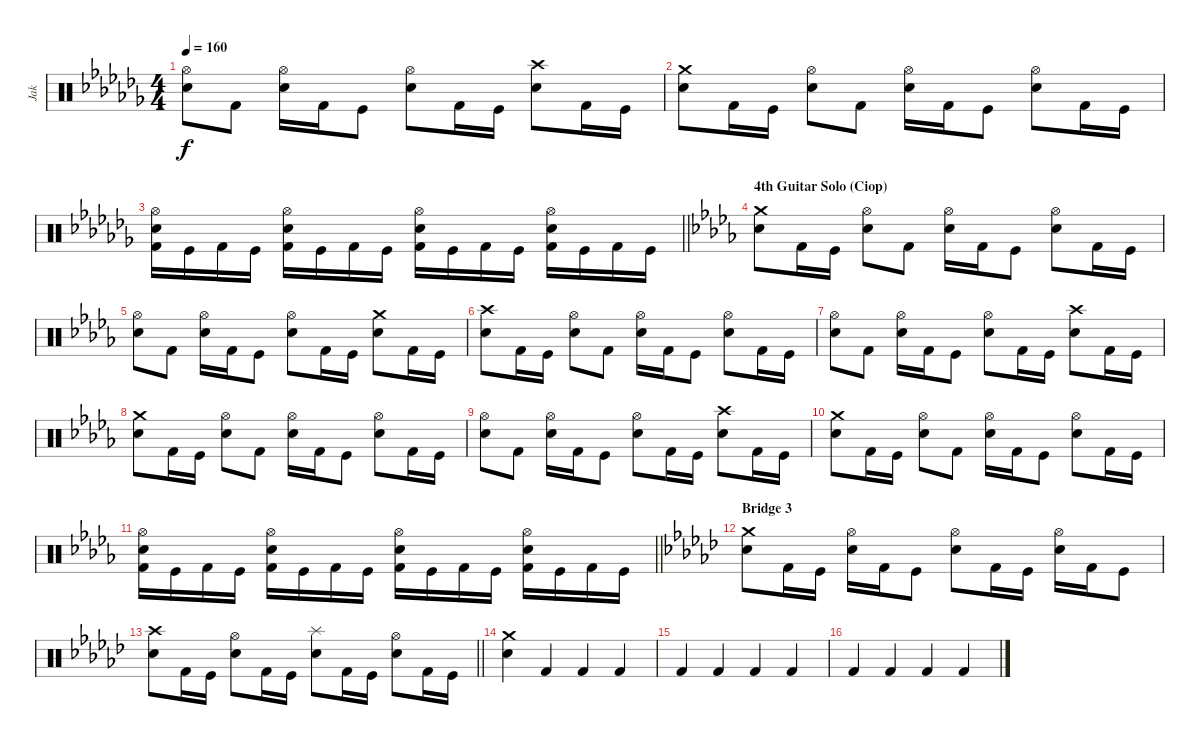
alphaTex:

\track ("Jak" "Jak") {instrument percussion}
\staff {score}
\articulation defaults
\ts (4 4)
\tempo 160
\clef neutral
\ks abminor
("Hi-Hat (open)" "Snare (hit) 2").8{dy f} "Kick (hit) 2".8 ("Hi-Hat (open)" "Snare (hit) 2").16 "Kick (hit) 2".16 "Kick (hit)".8 ("Hi-Hat (open)" "Snare (hit) 2").8 "Kick (hit) 2".16 "Kick (hit)".16 ("Crash high (hit)" "Snare (hit) 2").8 "Kick (hit) 2".16 "Kick (hit)".16 |
("Crash medium (hit)" "Snare (hit) 2").8 "Kick (hit) 2".16 "Kick (hit)".16 ("Hi-Hat (open)" "Snare (hit) 2").8 "Kick (hit) 2".8 ("Hi-Hat (open)" "Snare (hit) 2").16 "Kick (hit) 2".16 "Kick (hit)".8 ("Hi-Hat (open)" "Snare (hit) 2").8 "Kick (hit) 2".16 "Kick (hit)".16 |
\barLineRight lightlight
("Hi-Hat (open)" "Snare (hit) 2" "Kick (hit) 2").16 "Kick (hit)".16 "Kick (hit) 2".16 "Kick (hit)".16 ("Hi-Hat (open)" "Snare (hit) 2" "Kick (hit) 2").16 "Kick (hit)".16 "Kick (hit) 2".16 "Kick (hit)".16 ("Hi-Hat (open)" "Snare (hit) 2" "Kick (hit) 2").16 "Kick (hit)".16 "Kick (hit) 2".16 "Kick (hit)".16 ("Hi-Hat (open)" "Snare (hit) 2" "Kick (hit) 2").16 "Kick (hit)".16 "Kick (hit) 2".16 "Kick (hit)".16 |
\section ("" "4th Guitar Solo (Ciop)")
\ks bbminor
("Crash medium (hit)" "Snare (hit) 2").8 "Kick (hit) 2".16 "Kick (hit)".16 ("Hi-Hat (open)" "Snare (hit) 2").8 "Kick (hit) 2".8 ("Hi-Hat (open)" "Snare (hit) 2").16 "Kick (hit) 2".16 "Kick (hit)".8 ("Hi-Hat (open)" "Snare (hit) 2").8 "Kick (hit) 2".16 "Kick (hit)".16 |
("Hi-Hat (open)" "Snare (hit) 2").8 "Kick (hit) 2".8 ("Hi-Hat (open)" "Snare (hit) 2").16 "Kick (hit) 2".16 "Kick (hit)".8 ("Hi-Hat (open)" "Snare (hit) 2").8 "Kick (hit) 2".16 "Kick (hit)".16 ("Crash medium (hit)" "Snare (hit) 2").8 "Kick (hit) 2".16 "Kick (hit)".16 |
("Crash high (hit)" "Snare (hit) 2").8 "Kick (hit) 2".16 "Kick (hit)".16 ("Hi-Hat (open)" "Snare (hit) 2").8 "Kick (hit) 2".8 ("Hi-Hat (open)" "Snare (hit) 2").16 "Kick (hit) 2".16 "Kick (hit)".8 ("Hi-Hat (open)" "Snare (hit) 2").8 "Kick (hit) 2".16 "Kick (hit)".16 |
("Hi-Hat (open)" "Snare (hit) 2").8 "Kick (hit) 2".8 ("Hi-Hat (open)" "Snare (hit) 2").16 "Kick (hit) 2".16 "Kick (hit)".8 ("Hi-Hat (open)" "Snare (hit) 2").8 "Kick (hit) 2".16 "Kick (hit)".16 ("Crash high (hit)" "Snare (hit) 2").8 "Kick (hit) 2".16 "Kick (hit)".16 |
("Crash medium (hit)" "Snare (hit) 2").8 "Kick (hit) 2".16 "Kick (hit)".16 ("Hi-Hat (open)" "Snare (hit) 2").8 "Kick (hit) 2".8 ("Hi-Hat (open)" "Snare (hit) 2").16 "Kick (hit) 2".16 "Kick (hit)".8 ("Hi-Hat (open)" "Snare (hit) 2").8 "Kick (hit) 2".16 "Kick (hit)".16 |
("Hi-Hat (open)" "Snare (hit) 2").8 "Kick (hit) 2".8 ("Hi-Hat (open)" "Snare (hit) 2").16 "Kick (hit) 2".16 "Kick (hit)".8 ("Hi-Hat (open)" "Snare (hit) 2").8 "Kick (hit) 2".16 "Kick (hit)".16 ("Crash high (hit)" "Snare (hit) 2").8 "Kick (hit) 2".16 "Kick (hit)".16 |
("Crash medium (hit)" "Snare (hit) 2").8 "Kick (hit) 2".16 "Kick (hit)".16 ("Hi-Hat (open)" "Snare (hit) 2").8 "Kick (hit) 2".8 ("Hi-Hat (open)" "Snare (hit) 2").16 "Kick (hit) 2".16 "Kick (hit)".8 ("Hi-Hat (open)" "Snare (hit) 2").8 "Kick (hit) 2".16 "Kick (hit)".16 |
\barLineRight lightlight
("Hi-Hat (open)" "Snare (hit) 2" "Kick (hit) 2").16 "Kick (hit)".16 "Kick (hit) 2".16 "Kick (hit)".16 ("Hi-Hat (open)" "Snare (hit) 2" "Kick (hit) 2").16 "Kick (hit)".16 "Kick (hit) 2".16 "Kick (hit)".16 ("Hi-Hat (open)" "Snare (hit) 2" "Kick (hit) 2").16 "Kick (hit)".16 "Kick (hit) 2".16 "Kick (hit)".16 ("Hi-Hat (open)" "Snare (hit) 2" "Kick (hit) 2").16 "Kick (hit)".16 "Kick (hit) 2".16 "Kick (hit)".16 |
\section ("" "Bridge 3")
\ks ebminor
("Crash medium (hit)" "Snare (hit) 2").8 "Kick (hit) 2".16 "Kick (hit)".16 ("Hi-Hat (open)" "Snare (hit) 2").16 "Kick (hit) 2".16 "Kick (hit)".8 ("Hi-Hat (open)" "Snare (hit) 2").8 "Kick (hit) 2".16 "Kick (hit)".16 ("Hi-Hat (open)" "Snare (hit) 2").16 "Kick (hit) 2".16 "Kick (hit)".8 |
\barLineRight lightlight
("Crash high (hit)" "Snare (hit) 2").8 "Kick (hit) 2".16 "Kick (hit)".16 ("Hi-Hat (open)" "Snare (hit) 2").8 "Kick (hit) 2".16 "Kick (hit)".16 ("Splash (hit)" "Snare (hit) 2").8 "Kick (hit) 2".16 "Kick (hit)".16 ("Hi-Hat (open)" "Snare (hit) 2").8 "Kick (hit) 2".16 "Kick (hit)".16 |
("Crash medium (hit)" "Snare (hit) 2").4 "Kick (hit) 2".4 "Kick (hit) 2".4 "Kick (hit) 2".4 |
"Kick (hit) 2".4 "Kick (hit) 2".4 "Kick (hit) 2".4 "Kick (hit) 2".4 |
"Kick (hit) 2".4 "Kick (hit) 2".4 "Kick (hit) 2".4 "Kick (hit) 2".4
